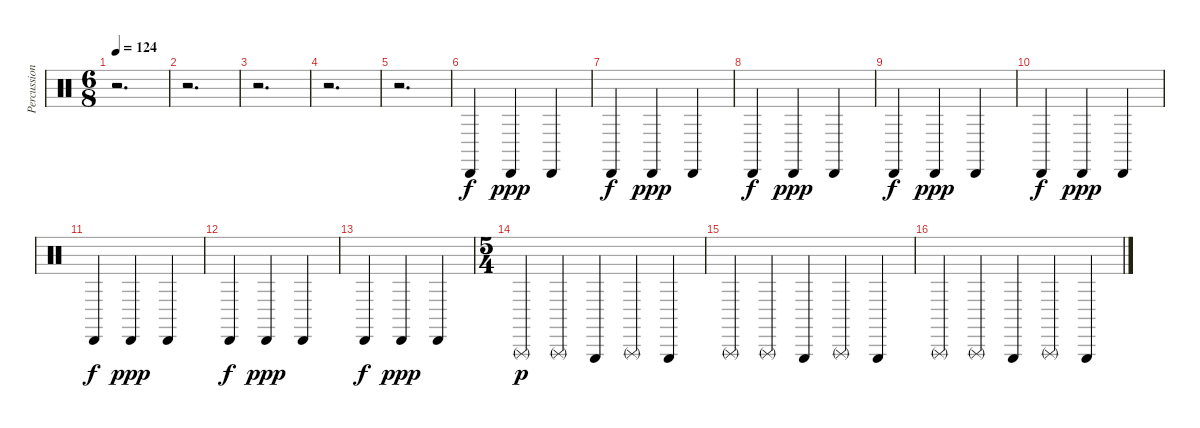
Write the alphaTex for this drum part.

\track ("Percussion" "Percussion") {instrument percussion}
\staff {score}
\articulation defaults
\ts (6 8)
\tempo 124
\clef neutral
\ks c
r.2{d dy p} |
r.2{d} |
r.2{d} |
r.2{d} |
r.2{d} |
"Cabasa (hit)".4{dy f} "Cabasa (hit)".4{dy ppp} "Cabasa (hit)".4 |
"Cabasa (hit)".4{dy f} "Cabasa (hit)".4{dy ppp} "Cabasa (hit)".4 |
"Cabasa (hit)".4{dy f} "Cabasa (hit)".4{dy ppp} "Cabasa (hit)".4 |
"Cabasa (hit)".4{dy f} "Cabasa (hit)".4{dy ppp} "Cabasa (hit)".4 |
"Cabasa (hit)".4{dy f} "Cabasa (hit)".4{dy ppp} "Cabasa (hit)".4 |
"Cabasa (hit)".4{dy f} "Cabasa (hit)".4{dy ppp} "Cabasa (hit)".4 |
"Cabasa (hit)".4{dy f} "Cabasa (hit)".4{dy ppp} "Cabasa (hit)".4 |
"Cabasa (hit)".4{dy f} "Cabasa (hit)".4{dy ppp} "Cabasa (hit)".4 |
\ts (5 4)
\section ("" "")
"Triangle (rnute)".4{dy p} "Triangle (rnute)".4 "Triangle (hit)".4 "Triangle (rnute)".4 "Triangle (hit)".4 |
"Triangle (rnute)".4 "Triangle (rnute)".4 "Triangle (hit)".4 "Triangle (rnute)".4 "Triangle (hit)".4 |
"Triangle (rnute)".4 "Triangle (rnute)".4 "Triangle (hit)".4 "Triangle (rnute)".4 "Triangle (hit)".4
